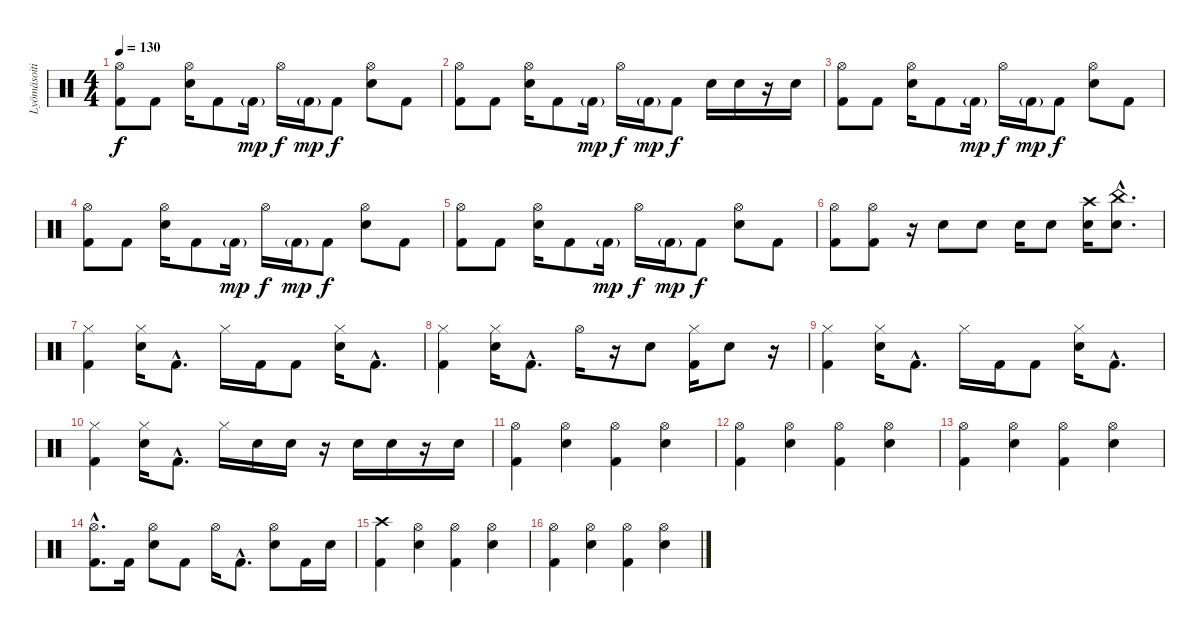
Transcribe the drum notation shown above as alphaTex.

\track ("Lyömäsoitin" "Lyömäsoiti") {instrument percussion}
\staff {score}
\articulation defaults
\ts (4 4)
\tempo 130
\clef neutral
\ks c
("Hi-Hat (open)" "Kick (hit) 2").8{dy f} "Kick (hit) 2".8 ("Hi-Hat (open)" "Electric Snare (hit)").16 "Kick (hit) 2".8 "Kick (hit) 2"{g}.16{dy mp} "Hi-Hat (open)".16{dy f} "Kick (hit) 2"{g}.16{dy mp} "Kick (hit) 2".8{dy f} ("Electric Snare (hit)" "Hi-Hat (open)").8 "Kick (hit) 2".8 |
("Hi-Hat (open)" "Kick (hit) 2").8 "Kick (hit) 2".8 ("Hi-Hat (open)" "Electric Snare (hit)").16 "Kick (hit) 2".8 "Kick (hit) 2"{g}.16{dy mp} "Hi-Hat (open)".16{dy f} "Kick (hit) 2"{g}.16{dy mp} "Kick (hit) 2".8{dy f} "Electric Snare (hit)".16 "Electric Snare (hit)".16 r.16 "Electric Snare (hit)".16 |
("Hi-Hat (open)" "Kick (hit) 2").8 "Kick (hit) 2".8 ("Hi-Hat (open)" "Electric Snare (hit)").16 "Kick (hit) 2".8 "Kick (hit) 2"{g}.16{dy mp} "Hi-Hat (open)".16{dy f} "Kick (hit) 2"{g}.16{dy mp} "Kick (hit) 2".8{dy f} ("Electric Snare (hit)" "Hi-Hat (open)").8 "Kick (hit) 2".8 |
("Hi-Hat (open)" "Kick (hit) 2").8 "Kick (hit) 2".8 ("Hi-Hat (open)" "Electric Snare (hit)").16 "Kick (hit) 2".8 "Kick (hit) 2"{g}.16{dy mp} "Hi-Hat (open)".16{dy f} "Kick (hit) 2"{g}.16{dy mp} "Kick (hit) 2".8{dy f} ("Electric Snare (hit)" "Hi-Hat (open)").8 "Kick (hit) 2".8 |
("Hi-Hat (open)" "Kick (hit) 2").8 "Kick (hit) 2".8 ("Hi-Hat (open)" "Electric Snare (hit)").16 "Kick (hit) 2".8 "Kick (hit) 2"{g}.16{dy mp} "Hi-Hat (open)".16{dy f} "Kick (hit) 2"{g}.16{dy mp} "Kick (hit) 2".8{dy f} ("Electric Snare (hit)" "Hi-Hat (open)").8 "Kick (hit) 2".8 |
("Hi-Hat (open)" "Kick (hit) 2").8 ("Hi-Hat (open)" "Kick (hit) 2").8 r.16 "Electric Snare (hit)".8 "Electric Snare (hit)".8 "Electric Snare (hit)".16 "Electric Snare (hit)".8 ("Crash high (hit)" "Electric Snare (hit)").16 ("China (hit)"{hac} "Electric Snare (hit)"{hac}).8{d} |
("Hi-Hat (closed)" "Kick (hit) 2").4 ("Hi-Hat (closed)" "Electric Snare (hit)").16 "Kick (hit) 2"{hac}.8{d} "Hi-Hat (closed)".16 "Kick (hit) 2".16 "Kick (hit) 2".8 ("Hi-Hat (closed)" "Electric Snare (hit)").16 "Kick (hit) 2"{hac}.8{d} |
("Hi-Hat (closed)" "Kick (hit) 2").4 ("Hi-Hat (closed)" "Electric Snare (hit)").16 "Kick (hit) 2"{hac}.8{d} "Hi-Hat (open)".16 r.16 "Electric Snare (hit)".8 ("Hi-Hat (closed)" "Kick (hit) 2").16 "Electric Snare (hit)".8 r.16 |
("Hi-Hat (closed)" "Kick (hit) 2").4 ("Hi-Hat (closed)" "Electric Snare (hit)").16 "Kick (hit) 2"{hac}.8{d} "Hi-Hat (closed)".16 "Kick (hit) 2".16 "Kick (hit) 2".8 ("Hi-Hat (closed)" "Electric Snare (hit)").16 "Kick (hit) 2"{hac}.8{d} |
("Hi-Hat (closed)" "Kick (hit) 2").4 ("Hi-Hat (closed)" "Electric Snare (hit)").16 "Kick (hit) 2"{hac}.8{d} "Hi-Hat (closed)".16 "Electric Snare (hit)".16 "Electric Snare (hit)".16 r.16 "Electric Snare (hit)".16 "Electric Snare (hit)".16 r.16 "Electric Snare (hit)".16 |
("Hi-Hat (open)" "Kick (hit) 2").4 ("Hi-Hat (open)" "Electric Snare (hit)").4 ("Hi-Hat (open)" "Kick (hit) 2").4 ("Hi-Hat (open)" "Electric Snare (hit)").4 |
("Hi-Hat (open)" "Kick (hit) 2").4 ("Hi-Hat (open)" "Electric Snare (hit)").4 ("Hi-Hat (open)" "Kick (hit) 2").4 ("Hi-Hat (open)" "Electric Snare (hit)").4 |
("Hi-Hat (open)" "Kick (hit) 2").4 ("Hi-Hat (open)" "Electric Snare (hit)").4 ("Hi-Hat (open)" "Kick (hit) 2").4 ("Hi-Hat (open)" "Electric Snare (hit)").4 |
("Hi-Hat (open)"{hac} "Kick (hit) 2"{hac}).8{d} "Kick (hit) 2".16 ("Hi-Hat (open)" "Electric Snare (hit)").8 "Kick (hit) 2".8 "Hi-Hat (open)".16 "Kick (hit) 2"{hac}.8{d} ("Hi-Hat (open)" "Electric Snare (hit)").8 "Kick (hit) 2".16 "Electric Snare (hit)".16 |
("Crash high (hit)" "Kick (hit) 2").4 ("Hi-Hat (open)" "Electric Snare (hit)").4 ("Hi-Hat (open)" "Kick (hit) 2").4 ("Hi-Hat (open)" "Electric Snare (hit)").4 |
("Hi-Hat (open)" "Kick (hit) 2").4 ("Hi-Hat (open)" "Electric Snare (hit)").4 ("Hi-Hat (open)" "Kick (hit) 2").4 ("Hi-Hat (open)" "Electric Snare (hit)").4
